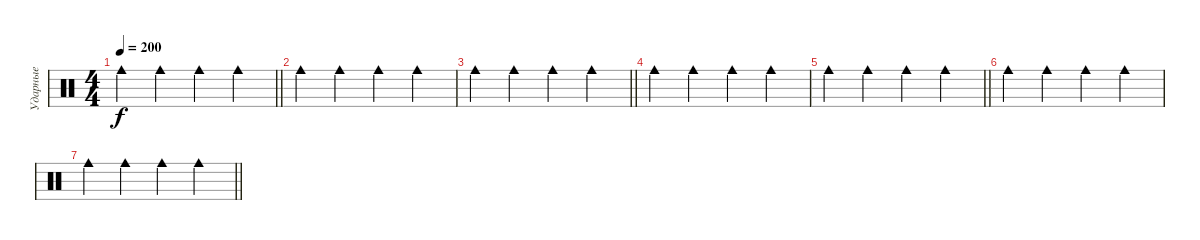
\track ("Ударные" "Ударные") {instrument percussion}
\staff {score}
\articulation defaults
\ts (4 4)
\tempo 200
\clef neutral
\barLineRight lightlight
\ks c "Cowbell medium (hit)".4{dy f} "Cowbell medium (hit)".4 "Cowbell medium (hit)".4 "Cowbell medium (hit)".4
|
"Cowbell medium (hit)".4 "Cowbell medium (hit)".4 "Cowbell medium (hit)".4 "Cowbell medium (hit)".4 |
\barLineRight lightlight "Cowbell medium (hit)".4 "Cowbell medium (hit)".4 "Cowbell medium (hit)".4 "Cowbell medium (hit)".4
|
"Cowbell medium (hit)".4 "Cowbell medium (hit)".4 "Cowbell medium (hit)".4 "Cowbell medium (hit)".4 |
\barLineRight lightlight "Cowbell medium (hit)".4 "Cowbell medium (hit)".4 "Cowbell medium (hit)".4 "Cowbell medium (hit)".4
|
"Cowbell medium (hit)".4 "Cowbell medium (hit)".4 "Cowbell medium (hit)".4 "Cowbell medium (hit)".4 |
\barLineRight lightlight "Cowbell medium (hit)".4 "Cowbell medium (hit)".4 "Cowbell medium (hit)".4 "Cowbell medium (hit)".4
